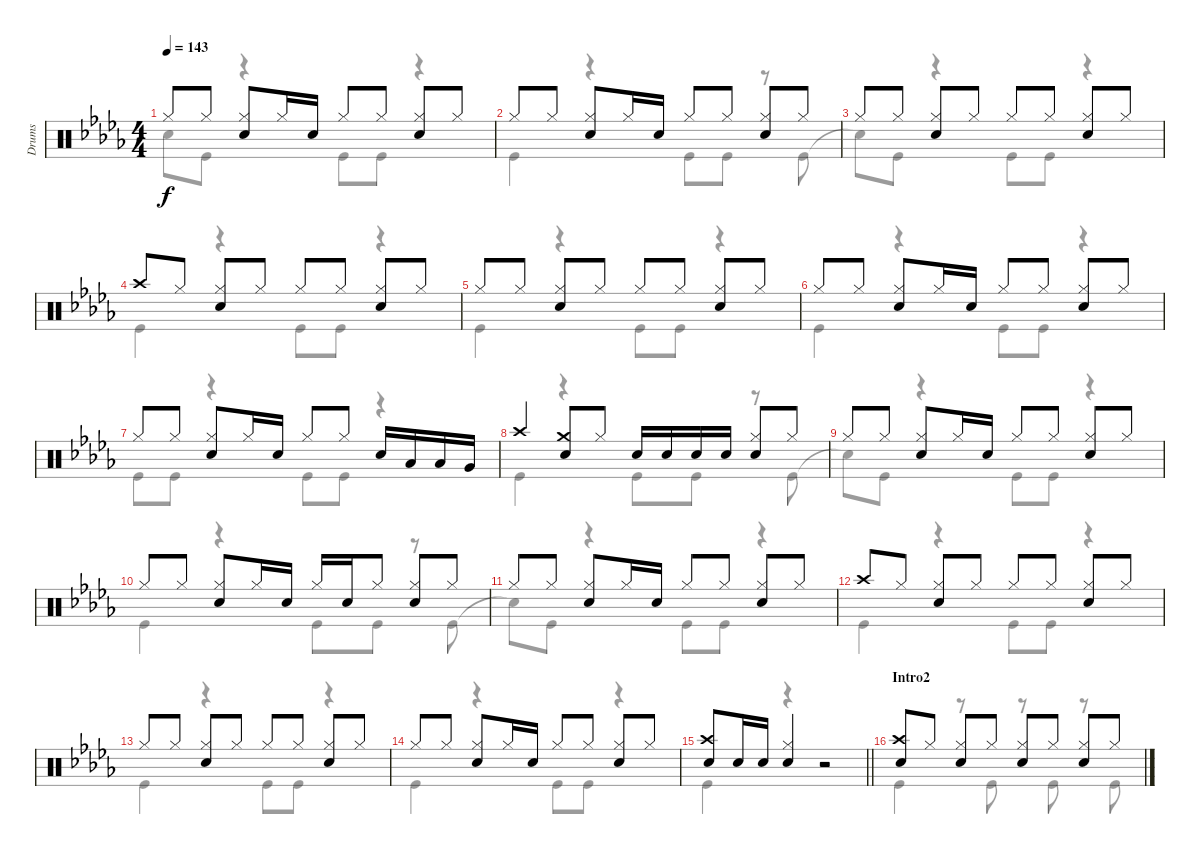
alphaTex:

\track ("Drums" "Drums") {instrument percussion}
\staff {score}
\articulation defaults
\voice
\ts (4 4)
\tempo 143
\clef neutral
\ks db "Hi-Hat (closed)".8{dy f} "Hi-Hat (closed)".8
("Hi-Hat (closed)" "Snare (hit) 2").8 "Hi-Hat (closed)".16 "Snare (hit) 2".16 "Hi-Hat (closed)".8 "Hi-Hat (closed)".8 ("Hi-Hat (closed)" "Snare (hit) 2").8 "Hi-Hat (closed)".8 |
"Hi-Hat (closed)".8 "Hi-Hat (closed)".8 ("Hi-Hat (closed)" "Snare (hit) 2").8 "Hi-Hat (closed)".16 "Snare (hit) 2".16 "Hi-Hat (closed)".8 "Hi-Hat (closed)".8 ("Hi-Hat (closed)" "Snare (hit) 2").8 "Hi-Hat (closed)".8 |
"Hi-Hat (closed)".8 "Hi-Hat (closed)".8 ("Hi-Hat (closed)" "Snare (hit) 2").8 "Hi-Hat (closed)".8 "Hi-Hat (closed)".8 "Hi-Hat (closed)".8 ("Hi-Hat (closed)" "Snare (hit) 2").8 "Hi-Hat (closed)".8 |
"Crash high (hit)".8 "Hi-Hat (closed)".8 ("Hi-Hat (closed)" "Snare (hit) 2").8 "Hi-Hat (closed)".8 "Hi-Hat (closed)".8 "Hi-Hat (closed)".8 ("Hi-Hat (closed)" "Snare (hit) 2").8 "Hi-Hat (closed)".8 |
"Hi-Hat (closed)".8 "Hi-Hat (closed)".8 ("Hi-Hat (closed)" "Snare (hit) 2").8 "Hi-Hat (closed)".8 "Hi-Hat (closed)".8 "Hi-Hat (closed)".8 ("Hi-Hat (closed)" "Snare (hit) 2").8 "Hi-Hat (closed)".8 |
"Hi-Hat (closed)".8 "Hi-Hat (closed)".8 ("Hi-Hat (closed)" "Snare (hit) 2").8 "Hi-Hat (closed)".16 "Snare (hit) 2".16 "Hi-Hat (closed)".8 "Hi-Hat (closed)".8 ("Hi-Hat (closed)" "Snare (hit) 2").8 "Hi-Hat (closed)".8 |
"Hi-Hat (closed)".8 "Hi-Hat (closed)".8 ("Hi-Hat (closed)" "Snare (hit) 2").8 "Hi-Hat (closed)".16 "Snare (hit) 2".16 "Hi-Hat (closed)".8 "Hi-Hat (closed)".8 "Snare (hit) 2".16 "Low Tom (hit)".16 "Low Tom (hit)".16 "Very Low Tom (hit)".16 |
"Crash high (hit)".4 ("Crash medium (hit)" "Snare (hit) 2").8 "Hi-Hat (closed)".8 "Snare (hit) 2".16 "Snare (hit) 2".16 "Snare (hit) 2".16 "Snare (hit) 2".16 ("Hi-Hat (closed)" "Snare (hit) 2").8 "Hi-Hat (closed)".8 |
"Hi-Hat (closed)".8 "Hi-Hat (closed)".8 ("Hi-Hat (closed)" "Snare (hit) 2").8 "Hi-Hat (closed)".16 "Snare (hit) 2".16 "Hi-Hat (closed)".8 "Hi-Hat (closed)".8 ("Hi-Hat (closed)" "Snare (hit) 2").8 "Hi-Hat (closed)".8 |
"Hi-Hat (closed)".8 "Hi-Hat (closed)".8 ("Hi-Hat (closed)" "Snare (hit) 2").8 "Hi-Hat (closed)".16 "Snare (hit) 2".16 "Hi-Hat (closed)".16 "Snare (hit) 2".16 "Hi-Hat (closed)".8 ("Hi-Hat (closed)" "Snare (hit) 2").8 "Hi-Hat (closed)".8 |
"Hi-Hat (closed)".8 "Hi-Hat (closed)".8 ("Hi-Hat (closed)" "Snare (hit) 2").8 "Hi-Hat (closed)".16 "Snare (hit) 2".16 "Hi-Hat (closed)".8 "Hi-Hat (closed)".8 ("Hi-Hat (closed)" "Snare (hit) 2").8 "Hi-Hat (closed)".8 |
"Crash high (hit)".8 "Hi-Hat (closed)".8 ("Hi-Hat (closed)" "Snare (hit) 2").8 "Hi-Hat (closed)".8 "Hi-Hat (closed)".8 "Hi-Hat (closed)".8 ("Hi-Hat (closed)" "Snare (hit) 2").8 "Hi-Hat (closed)".8 |
"Hi-Hat (closed)".8 "Hi-Hat (closed)".8 ("Hi-Hat (closed)" "Snare (hit) 2").8 "Hi-Hat (closed)".8 "Hi-Hat (closed)".8 "Hi-Hat (closed)".8 ("Hi-Hat (closed)" "Snare (hit) 2").8 "Hi-Hat (closed)".8 |
"Hi-Hat (closed)".8 "Hi-Hat (closed)".8 ("Hi-Hat (closed)" "Snare (hit) 2").8 "Hi-Hat (closed)".16 "Snare (hit) 2".16 "Hi-Hat (closed)".8 "Hi-Hat (closed)".8 ("Hi-Hat (closed)" "Snare (hit) 2").8 "Hi-Hat (closed)".8 |
\barLineRight lightlight
("Crash high (hit)" "Snare (hit) 2").8 "Snare (hit) 2".16 "Snare (hit) 2".16 ("Snare (hit) 2" "Hi-Hat (closed)").4 r.2 |
\section ("" "Intro2")
("Crash high (hit)" "Snare (hit) 2").8 "Hi-Hat (closed)".8 ("Hi-Hat (closed)" "Snare (hit) 2").8 "Hi-Hat (closed)".8 ("Hi-Hat (closed)" "Snare (hit) 2").8 "Hi-Hat (closed)".8 ("Hi-Hat (closed)" "Snare (hit) 2").8 "Hi-Hat (closed)".8
\voice
\clef neutral
\ottava regular
\simile none
\ks db "Snare (hit)"{t}.8{dy f} "Kick (hit)".8
r.4 "Kick (hit)".8 "Kick (hit)".8 r.4 |
"Kick (hit)".4 r.4 "Kick (hit)".8 "Kick (hit)".8 r.8 "Kick (hit)".8 |
"Snare (hit)"{t}.8 "Kick (hit)".8 r.4 "Kick (hit)".8 "Kick (hit)".8 r.4 |
"Kick (hit)".4 r.4 "Kick (hit)".8 "Kick (hit)".8 r.4 |
"Kick (hit)".4 r.4 "Kick (hit)".8 "Kick (hit)".8 r.4 |
"Kick (hit)".4 r.4 "Kick (hit)".8 "Kick (hit)".8 r.4 |
"Kick (hit)".8 "Kick (hit)".8 r.4 "Kick (hit)".8 "Kick (hit)".8 r.4 |
"Kick (hit)".4 r.4 "Kick (hit)".8 "Kick (hit)".8 r.8 "Kick (hit)".8 |
"Snare (hit)"{t}.8 "Kick (hit)".8 r.4 "Kick (hit)".8 "Kick (hit)".8 r.4 |
"Kick (hit)".4 r.4 "Kick (hit)".8 "Kick (hit)".8 r.8 "Kick (hit)".8 |
"Snare (hit)"{t}.8 "Kick (hit)".8 r.4 "Kick (hit)".8 "Kick (hit)".8 r.4 |
"Kick (hit)".4 r.4 "Kick (hit)".8 "Kick (hit)".8 r.4 |
"Kick (hit)".4 r.4 "Kick (hit)".8 "Kick (hit)".8 r.4 |
"Kick (hit)".4 r.4 "Kick (hit)".8 "Kick (hit)".8 r.4 |
\barLineRight lightlight "Kick (hit)".4
r.4 r.2 |
"Kick (hit)".4 r.8 "Kick (hit)".8 r.8 "Kick (hit)".8 r.8 "Kick (hit)".8
